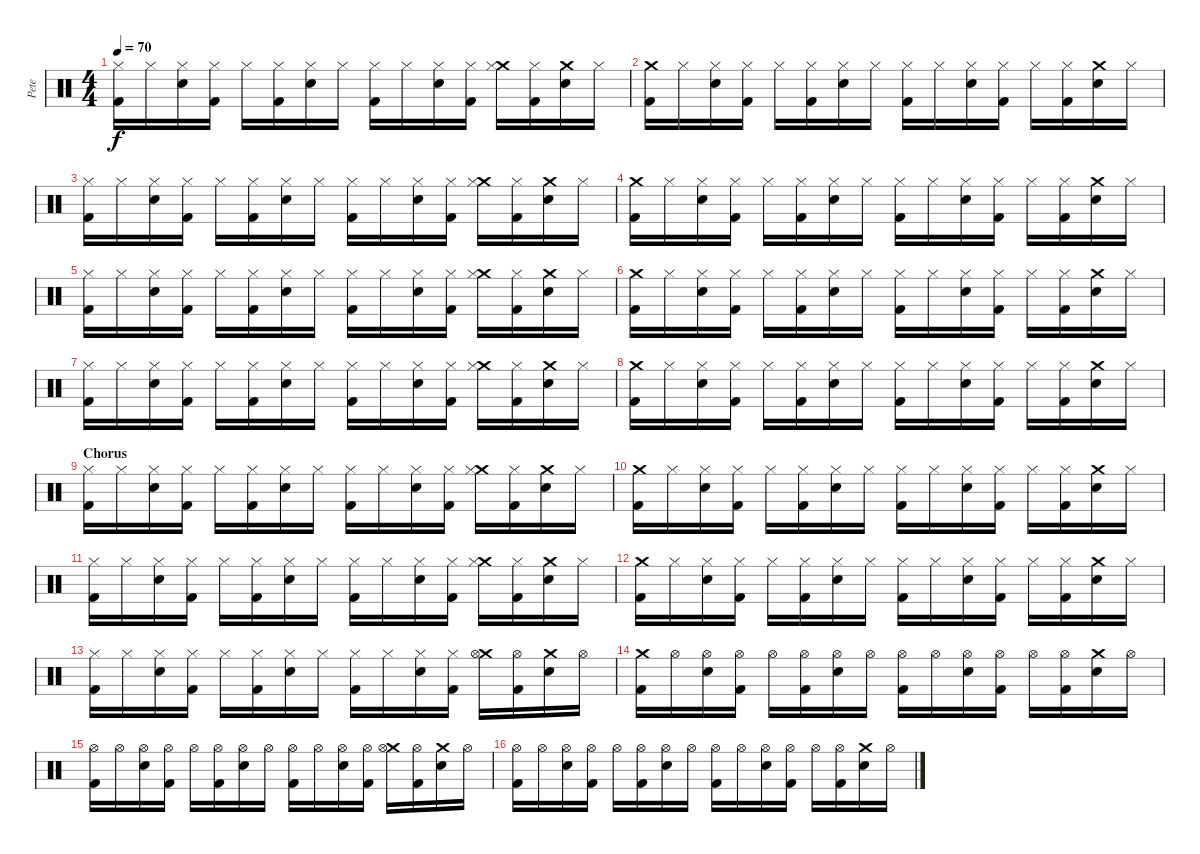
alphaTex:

\track ("Pete" "Pete") {instrument percussion}
\staff {score}
\articulation defaults
\ts (4 4)
\tempo 70
\clef neutral
\ks c
("Hi-Hat (closed)" "Kick (hit) 2").16{dy f} "Hi-Hat (closed)".16 ("Hi-Hat (closed)" "Snare (hit) 2").16 ("Hi-Hat (closed)" "Kick (hit) 2").16 "Hi-Hat (closed)".16 ("Hi-Hat (closed)" "Kick (hit) 2").16 ("Hi-Hat (closed)" "Snare (hit) 2").16 "Hi-Hat (closed)".16 ("Hi-Hat (closed)" "Kick (hit) 2").16 "Hi-Hat (closed)".16 ("Hi-Hat (closed)" "Snare (hit) 2").16 ("Hi-Hat (closed)" "Kick (hit) 2").16 ("Crash medium (hit)" "Hi-Hat (closed)").16 ("Hi-Hat (closed)" "Kick (hit) 2").16 ("Crash medium (hit)" "Snare (hit) 2").16 "Hi-Hat (closed)".16 |
("Crash medium (hit)" "Kick (hit) 2").16 "Hi-Hat (closed)".16 ("Hi-Hat (closed)" "Snare (hit) 2").16 ("Hi-Hat (closed)" "Kick (hit) 2").16 "Hi-Hat (closed)".16 ("Hi-Hat (closed)" "Kick (hit) 2").16 ("Hi-Hat (closed)" "Snare (hit) 2").16 "Hi-Hat (closed)".16 ("Hi-Hat (closed)" "Kick (hit) 2").16 "Hi-Hat (closed)".16 ("Hi-Hat (closed)" "Snare (hit) 2").16 ("Hi-Hat (closed)" "Kick (hit) 2").16 "Hi-Hat (closed)".16 ("Hi-Hat (closed)" "Kick (hit) 2").16 ("Crash medium (hit)" "Snare (hit) 2").16 "Hi-Hat (closed)".16 |
("Hi-Hat (closed)" "Kick (hit) 2").16 "Hi-Hat (closed)".16 ("Hi-Hat (closed)" "Snare (hit) 2").16 ("Hi-Hat (closed)" "Kick (hit) 2").16 "Hi-Hat (closed)".16 ("Hi-Hat (closed)" "Kick (hit) 2").16 ("Hi-Hat (closed)" "Snare (hit) 2").16 "Hi-Hat (closed)".16 ("Hi-Hat (closed)" "Kick (hit) 2").16 "Hi-Hat (closed)".16 ("Hi-Hat (closed)" "Snare (hit) 2").16 ("Hi-Hat (closed)" "Kick (hit) 2").16 ("Crash medium (hit)" "Hi-Hat (closed)").16 ("Hi-Hat (closed)" "Kick (hit) 2").16 ("Crash medium (hit)" "Snare (hit) 2").16 "Hi-Hat (closed)".16 |
("Crash medium (hit)" "Kick (hit) 2").16 "Hi-Hat (closed)".16 ("Hi-Hat (closed)" "Snare (hit) 2").16 ("Hi-Hat (closed)" "Kick (hit) 2").16 "Hi-Hat (closed)".16 ("Hi-Hat (closed)" "Kick (hit) 2").16 ("Hi-Hat (closed)" "Snare (hit) 2").16 "Hi-Hat (closed)".16 ("Hi-Hat (closed)" "Kick (hit) 2").16 "Hi-Hat (closed)".16 ("Hi-Hat (closed)" "Snare (hit) 2").16 ("Hi-Hat (closed)" "Kick (hit) 2").16 "Hi-Hat (closed)".16 ("Hi-Hat (closed)" "Kick (hit) 2").16 ("Crash medium (hit)" "Snare (hit) 2").16 "Hi-Hat (closed)".16 |
("Hi-Hat (closed)" "Kick (hit) 2").16 "Hi-Hat (closed)".16 ("Hi-Hat (closed)" "Snare (hit) 2").16 ("Hi-Hat (closed)" "Kick (hit) 2").16 "Hi-Hat (closed)".16 ("Hi-Hat (closed)" "Kick (hit) 2").16 ("Hi-Hat (closed)" "Snare (hit) 2").16 "Hi-Hat (closed)".16 ("Hi-Hat (closed)" "Kick (hit) 2").16 "Hi-Hat (closed)".16 ("Hi-Hat (closed)" "Snare (hit) 2").16 ("Hi-Hat (closed)" "Kick (hit) 2").16 ("Crash medium (hit)" "Hi-Hat (closed)").16 ("Hi-Hat (closed)" "Kick (hit) 2").16 ("Crash medium (hit)" "Snare (hit) 2").16 "Hi-Hat (closed)".16 |
("Crash medium (hit)" "Kick (hit) 2").16 "Hi-Hat (closed)".16 ("Hi-Hat (closed)" "Snare (hit) 2").16 ("Hi-Hat (closed)" "Kick (hit) 2").16 "Hi-Hat (closed)".16 ("Hi-Hat (closed)" "Kick (hit) 2").16 ("Hi-Hat (closed)" "Snare (hit) 2").16 "Hi-Hat (closed)".16 ("Hi-Hat (closed)" "Kick (hit) 2").16 "Hi-Hat (closed)".16 ("Hi-Hat (closed)" "Snare (hit) 2").16 ("Hi-Hat (closed)" "Kick (hit) 2").16 "Hi-Hat (closed)".16 ("Hi-Hat (closed)" "Kick (hit) 2").16 ("Crash medium (hit)" "Snare (hit) 2").16 "Hi-Hat (closed)".16 |
("Hi-Hat (closed)" "Kick (hit) 2").16 "Hi-Hat (closed)".16 ("Hi-Hat (closed)" "Snare (hit) 2").16 ("Hi-Hat (closed)" "Kick (hit) 2").16 "Hi-Hat (closed)".16 ("Hi-Hat (closed)" "Kick (hit) 2").16 ("Hi-Hat (closed)" "Snare (hit) 2").16 "Hi-Hat (closed)".16 ("Hi-Hat (closed)" "Kick (hit) 2").16 "Hi-Hat (closed)".16 ("Hi-Hat (closed)" "Snare (hit) 2").16 ("Hi-Hat (closed)" "Kick (hit) 2").16 ("Crash medium (hit)" "Hi-Hat (closed)").16 ("Hi-Hat (closed)" "Kick (hit) 2").16 ("Crash medium (hit)" "Snare (hit) 2").16 "Hi-Hat (closed)".16 |
("Crash medium (hit)" "Kick (hit) 2").16 "Hi-Hat (closed)".16 ("Hi-Hat (closed)" "Snare (hit) 2").16 ("Hi-Hat (closed)" "Kick (hit) 2").16 "Hi-Hat (closed)".16 ("Hi-Hat (closed)" "Kick (hit) 2").16 ("Hi-Hat (closed)" "Snare (hit) 2").16 "Hi-Hat (closed)".16 ("Hi-Hat (closed)" "Kick (hit) 2").16 "Hi-Hat (closed)".16 ("Hi-Hat (closed)" "Snare (hit) 2").16 ("Hi-Hat (closed)" "Kick (hit) 2").16 "Hi-Hat (closed)".16 ("Hi-Hat (closed)" "Kick (hit) 2").16 ("Crash medium (hit)" "Snare (hit) 2").16 "Hi-Hat (closed)".16 |
\section ("" "Chorus")
("Hi-Hat (closed)" "Kick (hit) 2").16 "Hi-Hat (closed)".16 ("Hi-Hat (closed)" "Snare (hit) 2").16 ("Hi-Hat (closed)" "Kick (hit) 2").16 "Hi-Hat (closed)".16 ("Hi-Hat (closed)" "Kick (hit) 2").16 ("Hi-Hat (closed)" "Snare (hit) 2").16 "Hi-Hat (closed)".16 ("Hi-Hat (closed)" "Kick (hit) 2").16 "Hi-Hat (closed)".16 ("Hi-Hat (closed)" "Snare (hit) 2").16 ("Hi-Hat (closed)" "Kick (hit) 2").16 ("Crash medium (hit)" "Hi-Hat (closed)").16 ("Hi-Hat (closed)" "Kick (hit) 2").16 ("Crash medium (hit)" "Snare (hit) 2").16 "Hi-Hat (closed)".16 |
("Crash medium (hit)" "Kick (hit) 2").16 "Hi-Hat (closed)".16 ("Hi-Hat (closed)" "Snare (hit) 2").16 ("Hi-Hat (closed)" "Kick (hit) 2").16 "Hi-Hat (closed)".16 ("Hi-Hat (closed)" "Kick (hit) 2").16 ("Hi-Hat (closed)" "Snare (hit) 2").16 "Hi-Hat (closed)".16 ("Hi-Hat (closed)" "Kick (hit) 2").16 "Hi-Hat (closed)".16 ("Hi-Hat (closed)" "Snare (hit) 2").16 ("Hi-Hat (closed)" "Kick (hit) 2").16 "Hi-Hat (closed)".16 ("Hi-Hat (closed)" "Kick (hit) 2").16 ("Crash medium (hit)" "Snare (hit) 2").16 "Hi-Hat (closed)".16 |
("Hi-Hat (closed)" "Kick (hit) 2").16 "Hi-Hat (closed)".16 ("Hi-Hat (closed)" "Snare (hit) 2").16 ("Hi-Hat (closed)" "Kick (hit) 2").16 "Hi-Hat (closed)".16 ("Hi-Hat (closed)" "Kick (hit) 2").16 ("Hi-Hat (closed)" "Snare (hit) 2").16 "Hi-Hat (closed)".16 ("Hi-Hat (closed)" "Kick (hit) 2").16 "Hi-Hat (closed)".16 ("Hi-Hat (closed)" "Snare (hit) 2").16 ("Hi-Hat (closed)" "Kick (hit) 2").16 ("Crash medium (hit)" "Hi-Hat (closed)").16 ("Hi-Hat (closed)" "Kick (hit) 2").16 ("Crash medium (hit)" "Snare (hit) 2").16 "Hi-Hat (closed)".16 |
("Crash medium (hit)" "Kick (hit) 2").16 "Hi-Hat (closed)".16 ("Hi-Hat (closed)" "Snare (hit) 2").16 ("Hi-Hat (closed)" "Kick (hit) 2").16 "Hi-Hat (closed)".16 ("Hi-Hat (closed)" "Kick (hit) 2").16 ("Hi-Hat (closed)" "Snare (hit) 2").16 "Hi-Hat (closed)".16 ("Hi-Hat (closed)" "Kick (hit) 2").16 "Hi-Hat (closed)".16 ("Hi-Hat (closed)" "Snare (hit) 2").16 ("Hi-Hat (closed)" "Kick (hit) 2").16 "Hi-Hat (closed)".16 ("Hi-Hat (closed)" "Kick (hit) 2").16 ("Crash medium (hit)" "Snare (hit) 2").16 "Hi-Hat (closed)".16 |
("Hi-Hat (closed)" "Kick (hit) 2").16 "Hi-Hat (closed)".16 ("Hi-Hat (closed)" "Snare (hit) 2").16 ("Hi-Hat (closed)" "Kick (hit) 2").16 "Hi-Hat (closed)".16 ("Hi-Hat (closed)" "Kick (hit) 2").16 ("Hi-Hat (closed)" "Snare (hit) 2").16 "Hi-Hat (closed)".16 ("Hi-Hat (closed)" "Kick (hit) 2").16 "Hi-Hat (closed)".16 ("Hi-Hat (closed)" "Snare (hit) 2").16 ("Hi-Hat (closed)" "Kick (hit) 2").16 ("Crash medium (hit)" "Hi-Hat (open)").16 ("Hi-Hat (open)" "Kick (hit) 2").16 ("Crash medium (hit)" "Snare (hit) 2").16 "Hi-Hat (open)".16 |
("Crash medium (hit)" "Kick (hit) 2").16 "Hi-Hat (open)".16 ("Hi-Hat (open)" "Snare (hit) 2").16 ("Hi-Hat (open)" "Kick (hit) 2").16 "Hi-Hat (open)".16 ("Hi-Hat (open)" "Kick (hit) 2").16 ("Hi-Hat (open)" "Snare (hit) 2").16 "Hi-Hat (open)".16 ("Hi-Hat (open)" "Kick (hit) 2").16 "Hi-Hat (open)".16 ("Hi-Hat (open)" "Snare (hit) 2").16 ("Hi-Hat (open)" "Kick (hit) 2").16 "Hi-Hat (open)".16 ("Hi-Hat (open)" "Kick (hit) 2").16 ("Crash medium (hit)" "Snare (hit) 2").16 "Hi-Hat (open)".16 |
("Hi-Hat (open)" "Kick (hit) 2").16 "Hi-Hat (open)".16 ("Hi-Hat (open)" "Snare (hit) 2").16 ("Hi-Hat (open)" "Kick (hit) 2").16 "Hi-Hat (open)".16 ("Hi-Hat (open)" "Kick (hit) 2").16 ("Hi-Hat (open)" "Snare (hit) 2").16 "Hi-Hat (open)".16 ("Hi-Hat (open)" "Kick (hit) 2").16 "Hi-Hat (open)".16 ("Hi-Hat (open)" "Snare (hit) 2").16 ("Hi-Hat (open)" "Kick (hit) 2").16 ("Crash medium (hit)" "Hi-Hat (open)").16 ("Hi-Hat (open)" "Kick (hit) 2").16 ("Crash medium (hit)" "Snare (hit) 2").16 "Hi-Hat (open)".16 |
("Hi-Hat (open)" "Kick (hit) 2").16 "Hi-Hat (open)".16 ("Hi-Hat (open)" "Snare (hit) 2").16 ("Hi-Hat (open)" "Kick (hit) 2").16 "Hi-Hat (open)".16 ("Hi-Hat (open)" "Kick (hit) 2").16 ("Hi-Hat (open)" "Snare (hit) 2").16 "Hi-Hat (open)".16 ("Hi-Hat (open)" "Kick (hit) 2").16 "Hi-Hat (open)".16 ("Hi-Hat (open)" "Snare (hit) 2").16 ("Hi-Hat (open)" "Kick (hit) 2").16 "Hi-Hat (open)".16 ("Hi-Hat (open)" "Kick (hit) 2").16 ("Crash medium (hit)" "Snare (hit) 2").16 "Hi-Hat (open)".16
